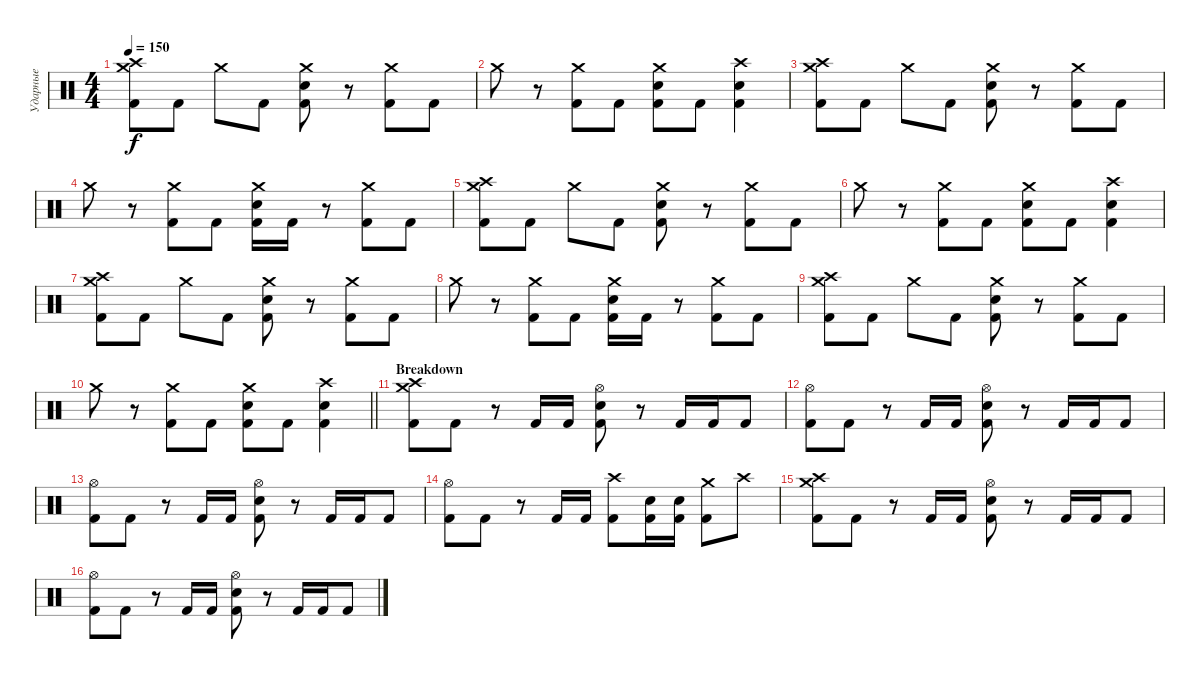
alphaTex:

\track ("Ударные" "Ударные") {instrument percussion}
\staff {score}
\articulation defaults
\ts (4 4)
\tempo 150
\clef neutral
\ks c
("Crash high (hit)" "Crash medium (hit)" "Kick (hit) 2").8{dy f} "Kick (hit) 2".8 "Crash medium (hit)".8 "Kick (hit) 2".8 ("Crash medium (hit)" "Electric Snare (hit)" "Kick (hit) 2").8 r.8 ("Crash medium (hit)" "Kick (hit) 2").8 "Kick (hit) 2".8 |
"Crash medium (hit)".8 r.8 ("Crash medium (hit)" "Kick (hit) 2").8 "Kick (hit) 2".8 ("Crash medium (hit)" "Electric Snare (hit)" "Kick (hit) 2").8 "Kick (hit) 2".8 ("Crash high (hit)" "Electric Snare (hit)" "Kick (hit) 2").4 |
("Crash high (hit)" "Crash medium (hit)" "Kick (hit) 2").8 "Kick (hit) 2".8 "Crash medium (hit)".8 "Kick (hit) 2".8 ("Crash medium (hit)" "Electric Snare (hit)" "Kick (hit) 2").8 r.8 ("Crash medium (hit)" "Kick (hit) 2").8 "Kick (hit) 2".8 |
"Crash medium (hit)".8 r.8 ("Crash medium (hit)" "Kick (hit) 2").8 "Kick (hit) 2".8 ("Crash medium (hit)" "Electric Snare (hit)" "Kick (hit) 2").16 "Kick (hit) 2".16 r.8 ("Crash medium (hit)" "Kick (hit) 2").8 "Kick (hit) 2".8 |
("Crash high (hit)" "Crash medium (hit)" "Kick (hit) 2").8 "Kick (hit) 2".8 "Crash medium (hit)".8 "Kick (hit) 2".8 ("Crash medium (hit)" "Electric Snare (hit)" "Kick (hit) 2").8 r.8 ("Crash medium (hit)" "Kick (hit) 2").8 "Kick (hit) 2".8 |
"Crash medium (hit)".8 r.8 ("Crash medium (hit)" "Kick (hit) 2").8 "Kick (hit) 2".8 ("Crash medium (hit)" "Electric Snare (hit)" "Kick (hit) 2").8 "Kick (hit) 2".8 ("Crash high (hit)" "Electric Snare (hit)" "Kick (hit) 2").4 |
("Crash high (hit)" "Crash medium (hit)" "Kick (hit) 2").8 "Kick (hit) 2".8 "Crash medium (hit)".8 "Kick (hit) 2".8 ("Crash medium (hit)" "Electric Snare (hit)" "Kick (hit) 2").8 r.8 ("Crash medium (hit)" "Kick (hit) 2").8 "Kick (hit) 2".8 |
"Crash medium (hit)".8 r.8 ("Crash medium (hit)" "Kick (hit) 2").8 "Kick (hit) 2".8 ("Crash medium (hit)" "Electric Snare (hit)" "Kick (hit) 2").16 "Kick (hit) 2".16 r.8 ("Crash medium (hit)" "Kick (hit) 2").8 "Kick (hit) 2".8 |
("Crash high (hit)" "Crash medium (hit)" "Kick (hit) 2").8 "Kick (hit) 2".8 "Crash medium (hit)".8 "Kick (hit) 2".8 ("Crash medium (hit)" "Electric Snare (hit)" "Kick (hit) 2").8 r.8 ("Crash medium (hit)" "Kick (hit) 2").8 "Kick (hit) 2".8 |
\barLineRight lightlight "Crash medium (hit)".8
r.8 ("Crash medium (hit)" "Kick (hit) 2").8 "Kick (hit) 2".8 ("Crash medium (hit)" "Electric Snare (hit)" "Kick (hit) 2").8 "Kick (hit) 2".8 ("Crash high (hit)" "Electric Snare (hit)" "Kick (hit) 2").4 |
\section ("" "Breakdown")
("Crash high (hit)" "Crash medium (hit)" "Kick (hit) 2").8 "Kick (hit) 2".8 r.8 "Kick (hit) 2".16 "Kick (hit) 2".16 ("Hi-Hat (open)" "Electric Snare (hit)" "Kick (hit) 2").8 r.8 "Kick (hit) 2".16 "Kick (hit) 2".16 "Kick (hit) 2".8 |
("Hi-Hat (open)" "Kick (hit) 2").8 "Kick (hit) 2".8 r.8 "Kick (hit) 2".16 "Kick (hit) 2".16 ("Hi-Hat (open)" "Electric Snare (hit)" "Kick (hit) 2").8 r.8 "Kick (hit) 2".16 "Kick (hit) 2".16 "Kick (hit) 2".8 |
("Hi-Hat (open)" "Kick (hit) 2").8 "Kick (hit) 2".8 r.8 "Kick (hit) 2".16 "Kick (hit) 2".16 ("Hi-Hat (open)" "Electric Snare (hit)" "Kick (hit) 2").8 r.8 "Kick (hit) 2".16 "Kick (hit) 2".16 "Kick (hit) 2".8 |
("Hi-Hat (open)" "Kick (hit) 2").8 "Kick (hit) 2".8 r.8 "Kick (hit) 2".16 "Kick (hit) 2".16 ("Crash high (hit)" "Kick (hit) 2").8 ("Electric Snare (hit)" "Kick (hit) 2").16 ("Electric Snare (hit)" "Kick (hit) 2").16 ("Crash medium (hit)" "Kick (hit) 2").8 "Crash high (hit)".8 |
("Crash high (hit)" "Crash medium (hit)" "Kick (hit) 2").8 "Kick (hit) 2".8 r.8 "Kick (hit) 2".16 "Kick (hit) 2".16 ("Hi-Hat (open)" "Electric Snare (hit)" "Kick (hit) 2").8 r.8 "Kick (hit) 2".16 "Kick (hit) 2".16 "Kick (hit) 2".8 |
("Hi-Hat (open)" "Kick (hit) 2").8 "Kick (hit) 2".8 r.8 "Kick (hit) 2".16 "Kick (hit) 2".16 ("Hi-Hat (open)" "Electric Snare (hit)" "Kick (hit) 2").8 r.8 "Kick (hit) 2".16 "Kick (hit) 2".16 "Kick (hit) 2".8
